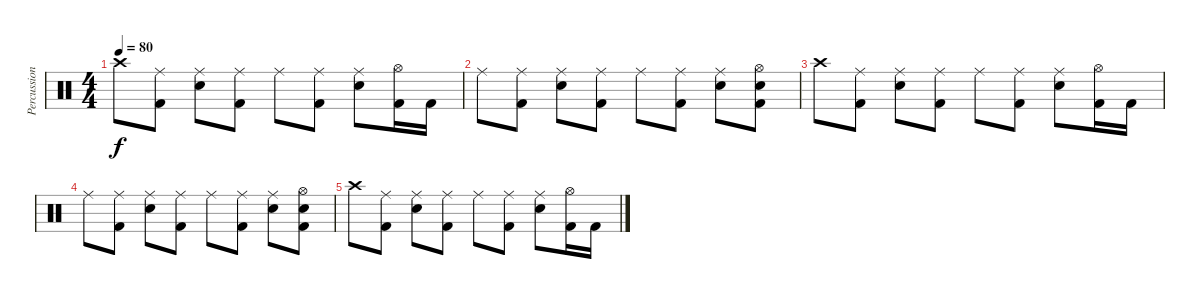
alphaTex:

\track ("Percussion" "Percussion") {instrument percussion}
\staff {score}
\articulation defaults
\ts (4 4)
\tempo 80
\clef neutral
\ks c "Crash high (hit)".8{dy f}
("Ride (middle)" "Kick (hit) 2").8 ("Ride (middle)" "Electric Snare (hit)").8 ("Ride (middle)" "Kick (hit) 2").8 "Ride (middle)".8 ("Ride (middle)" "Kick (hit) 2").8 ("Ride (middle)" "Electric Snare (hit)").8 ("Hi-Hat (open)" "Kick (hit) 2").16 "Kick (hit) 2".16 |
"Ride (middle)".8 ("Ride (middle)" "Kick (hit) 2").8 ("Ride (middle)" "Electric Snare (hit)").8 ("Ride (middle)" "Kick (hit) 2").8 "Ride (middle)".8 ("Ride (middle)" "Kick (hit) 2").8 ("Ride (middle)" "Electric Snare (hit)").8 ("Hi-Hat (open)" "Electric Snare (hit)" "Kick (hit) 2").8 |
"Crash high (hit)".8 ("Ride (middle)" "Kick (hit) 2").8 ("Ride (middle)" "Electric Snare (hit)").8 ("Ride (middle)" "Kick (hit) 2").8 "Ride (middle)".8 ("Ride (middle)" "Kick (hit) 2").8 ("Ride (middle)" "Electric Snare (hit)").8 ("Hi-Hat (open)" "Kick (hit) 2").16 "Kick (hit) 2".16 |
"Ride (middle)".8 ("Ride (middle)" "Kick (hit) 2").8 ("Ride (middle)" "Electric Snare (hit)").8 ("Ride (middle)" "Kick (hit) 2").8 "Ride (middle)".8 ("Ride (middle)" "Kick (hit) 2").8 ("Ride (middle)" "Electric Snare (hit)").8 ("Hi-Hat (open)" "Electric Snare (hit)" "Kick (hit) 2").8 |
"Crash high (hit)".8 ("Ride (middle)" "Kick (hit) 2").8 ("Ride (middle)" "Electric Snare (hit)").8 ("Ride (middle)" "Kick (hit) 2").8 "Ride (middle)".8 ("Ride (middle)" "Kick (hit) 2").8 ("Ride (middle)" "Electric Snare (hit)").8 ("Hi-Hat (open)" "Kick (hit) 2").16 "Kick (hit) 2".16
